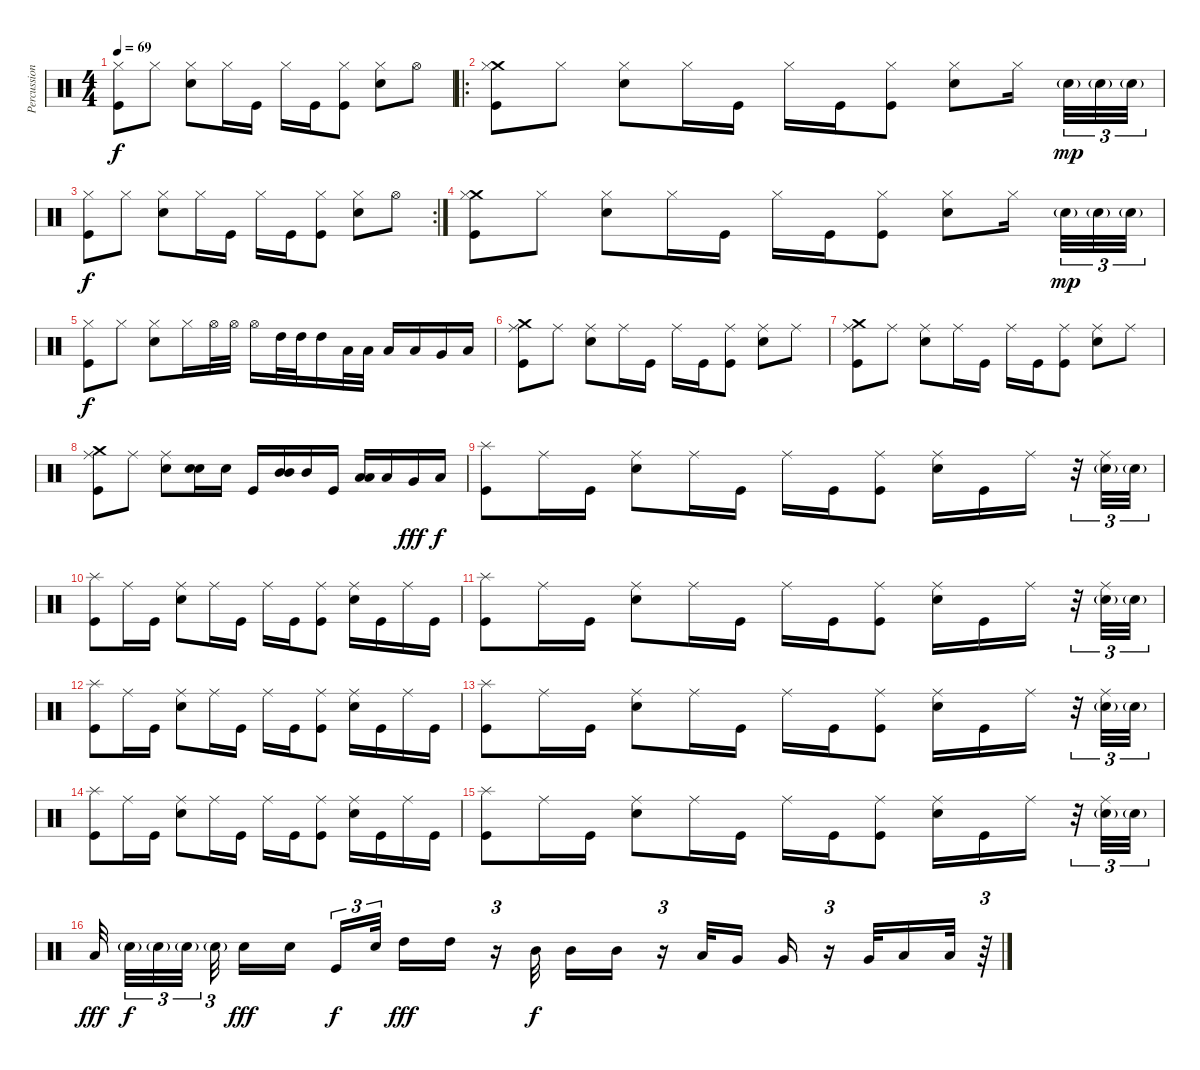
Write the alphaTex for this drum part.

\track ("Percussion" "Percussion") {instrument percussion}
\staff {score}
\articulation defaults
\ts (4 4)
\tempo 69
\clef neutral
\ks c
("Kick (hit)" "Hi-Hat (closed)").8{dy f} "Hi-Hat (closed)".8 ("Electric Snare (hit)" "Hi-Hat (closed)").8 "Hi-Hat (closed)".16 "Kick (hit)".16 "Hi-Hat (closed)".16 "Kick (hit)".16 ("Kick (hit)" "Hi-Hat (closed)").8 ("Electric Snare (hit)" "Hi-Hat (closed)").8 "Hi-Hat (open)".8 |
\ro
("Crash medium (hit)" "Kick (hit)" "Hi-Hat (closed)").8 "Hi-Hat (closed)".8 ("Electric Snare (hit)" "Hi-Hat (closed)").8 "Hi-Hat (closed)".16 "Kick (hit)".16 "Hi-Hat (closed)".16 "Kick (hit)".16 ("Kick (hit)" "Hi-Hat (closed)").8 ("Electric Snare (hit)" "Hi-Hat (closed)").8 "Hi-Hat (closed)".16{beam splitsecondary} "Electric Snare (hit)"{g}.32{tu (3 2) dy mp} "Electric Snare (hit)"{g}.32{tu (3 2)} "Electric Snare (hit)"{g}.32{tu (3 2)} |
\rc 2
("Kick (hit)" "Hi-Hat (closed)").8{dy f} "Hi-Hat (closed)".8 ("Electric Snare (hit)" "Hi-Hat (closed)").8 "Hi-Hat (closed)".16 "Kick (hit)".16 "Hi-Hat (closed)".16 "Kick (hit)".16 ("Kick (hit)" "Hi-Hat (closed)").8 ("Electric Snare (hit)" "Hi-Hat (closed)").8 "Hi-Hat (open)".8 |
("Crash medium (hit)" "Kick (hit)" "Hi-Hat (closed)").8 "Hi-Hat (closed)".8 ("Electric Snare (hit)" "Hi-Hat (closed)").8 "Hi-Hat (closed)".16 "Kick (hit)".16 "Hi-Hat (closed)".16 "Kick (hit)".16 ("Kick (hit)" "Hi-Hat (closed)").8 ("Electric Snare (hit)" "Hi-Hat (closed)").8 "Hi-Hat (closed)".16{beam splitsecondary} "Electric Snare (hit)"{g}.32{tu (3 2) dy mp} "Electric Snare (hit)"{g}.32{tu (3 2)} "Electric Snare (hit)"{g}.32{tu (3 2)} |
("Kick (hit)" "Hi-Hat (closed)").8{dy f} "Hi-Hat (closed)".8 ("Electric Snare (hit)" "Hi-Hat (closed)").8 "Hi-Hat (closed)".16 "Hi-Hat (open)".32 "Hi-Hat (open)".32 "Hi-Hat (open)".16 "High Tom (hit)".32 "High Tom (hit)".32 "High Tom (hit)".16 "Low Tom (hit)".32 "Low Tom (hit)".32 "Low Tom (hit)".16 "Low Tom (hit)".16 "Very Low Tom (hit)".16 "Low Floor Tom (hit)".16 |
("Crash medium (hit)" "Kick (hit)" "Ride (middle)").8 "Ride (middle)".8 ("Electric Snare (hit)" "Ride (middle)").8 "Ride (middle)".16 "Kick (hit)".16 "Ride (middle)".16 "Kick (hit)".16 ("Kick (hit)" "Ride (middle)").8 ("Electric Snare (hit)" "Ride (middle)").8 "Ride (middle)".8 |
("Crash medium (hit)" "Kick (hit)" "Ride (middle)").8 "Ride (middle)".8 ("Electric Snare (hit)" "Ride (middle)").8 "Ride (middle)".16 "Kick (hit)".16 "Ride (middle)".16 "Kick (hit)".16 ("Kick (hit)" "Ride (middle)").8 ("Electric Snare (hit)" "Ride (middle)").8 "Ride (middle)".8 |
("Crash medium (hit)" "Kick (hit)" "Ride (middle)").8 "Ride (middle)".8 ("Electric Snare (hit)" "Ride (middle)").8 ("Electric Snare (hit)" "Electric Snare (hit)").16{bd 60} "Electric Snare (hit)".16 "Kick (hit)".16 ("Mid Tom (hit)" "Mid Tom (hit)").16{bd 240} "Mid Tom (hit)".16 "Kick (hit)".16 ("Low Floor Tom (hit)" "Low Floor Tom (hit)").16{bd 240} "Low Floor Tom (hit)".16 "Very Low Tom (hit)".16{dy fff} "Low Floor Tom (hit)".16{dy f} |
("Splash (hit)" "Kick (hit)").8 "Ride (middle)".16 "Kick (hit)".16 ("Electric Snare (hit)" "Ride (middle)").8 "Ride (middle)".16 "Kick (hit)".16 "Ride (middle)".16 "Kick (hit)".16 ("Kick (hit)" "Ride (middle)").8 ("Electric Snare (hit)" "Ride (middle)").16 "Kick (hit)".16 "Ride (middle)".16 r.32{tu (3 2)} ("Electric Snare (hit)"{g} "Ride (middle)").32{tu (3 2)} "Electric Snare (hit)"{g}.32{tu (3 2)} |
("Splash (hit)" "Kick (hit)").8 "Ride (middle)".16 "Kick (hit)".16 ("Electric Snare (hit)" "Ride (middle)").8 "Ride (middle)".16 "Kick (hit)".16 "Ride (middle)".16 "Kick (hit)".16 ("Kick (hit)" "Ride (middle)").8 ("Electric Snare (hit)" "Ride (middle)").16 "Kick (hit)".16 "Ride (middle)".16 "Kick (hit)".16 |
("Splash (hit)" "Kick (hit)").8 "Ride (middle)".16 "Kick (hit)".16 ("Electric Snare (hit)" "Ride (middle)").8 "Ride (middle)".16 "Kick (hit)".16 "Ride (middle)".16 "Kick (hit)".16 ("Kick (hit)" "Ride (middle)").8 ("Electric Snare (hit)" "Ride (middle)").16 "Kick (hit)".16 "Ride (middle)".16 r.32{tu (3 2)} ("Electric Snare (hit)"{g} "Ride (middle)").32{tu (3 2)} "Electric Snare (hit)"{g}.32{tu (3 2)} |
("Splash (hit)" "Kick (hit)").8 "Ride (middle)".16 "Kick (hit)".16 ("Electric Snare (hit)" "Ride (middle)").8 "Ride (middle)".16 "Kick (hit)".16 "Ride (middle)".16 "Kick (hit)".16 ("Kick (hit)" "Ride (middle)").8 ("Electric Snare (hit)" "Ride (middle)").16 "Kick (hit)".16 "Ride (middle)".16 "Kick (hit)".16 |
("Splash (hit)" "Kick (hit)").8 "Ride (middle)".16 "Kick (hit)".16 ("Electric Snare (hit)" "Ride (middle)").8 "Ride (middle)".16 "Kick (hit)".16 "Ride (middle)".16 "Kick (hit)".16 ("Kick (hit)" "Ride (middle)").8 ("Electric Snare (hit)" "Ride (middle)").16 "Kick (hit)".16 "Ride (middle)".16 r.32{tu (3 2)} ("Electric Snare (hit)"{g} "Ride (middle)").32{tu (3 2)} "Electric Snare (hit)"{g}.32{tu (3 2)} |
("Splash (hit)" "Kick (hit)").8 "Ride (middle)".16 "Kick (hit)".16 ("Electric Snare (hit)" "Ride (middle)").8 "Ride (middle)".16 "Kick (hit)".16 "Ride (middle)".16 "Kick (hit)".16 ("Kick (hit)" "Ride (middle)").8 ("Electric Snare (hit)" "Ride (middle)").16 "Kick (hit)".16 "Ride (middle)".16 "Kick (hit)".16 |
("Splash (hit)" "Kick (hit)").8 "Ride (middle)".16 "Kick (hit)".16 ("Electric Snare (hit)" "Ride (middle)").8 "Ride (middle)".16 "Kick (hit)".16 "Ride (middle)".16 "Kick (hit)".16 ("Kick (hit)" "Ride (middle)").8 ("Electric Snare (hit)" "Ride (middle)").16 "Kick (hit)".16 "Ride (middle)".16 r.32{tu (3 2)} ("Electric Snare (hit)"{g} "Ride (middle)").32{tu (3 2)} "Electric Snare (hit)"{g}.32{tu (3 2)} |
"Low Tom (hit)".32{dy fff beam splitsecondary} "Electric Snare (hit)"{g}.32{tu (3 2) dy f} "Electric Snare (hit)"{g}.32{tu (3 2)} "Electric Snare (hit)"{g}.32{tu (3 2) beam splitsecondary} "Electric Snare (hit)"{g}.32{tu (3 2) beam splitsecondary} "Electric Snare (hit)".16{dy fff} "Electric Snare (hit)".16{beam splitsecondary} "Kick (hit)".16{tu (3 2) dy f} "Electric Snare (hit)".32{tu (3 2) beam splitsecondary} "High Tom (hit)".16{dy fff} "High Tom (hit)".16 r.16{tu (3 2)} "Mid Tom (hit)".32{dy f} "Mid Tom (hit)".16 "Mid Tom (hit)".16 r.16{tu (3 2)} "Low Tom (hit)".32 "Very Low Tom (hit)".16 "Very Low Tom (hit)".16 r.16{tu (3 2)} "Very Low Tom (hit)".32 "Low Floor Tom (hit)".16 "Low Floor Tom (hit)".32 r.64{tu (3 2)}
